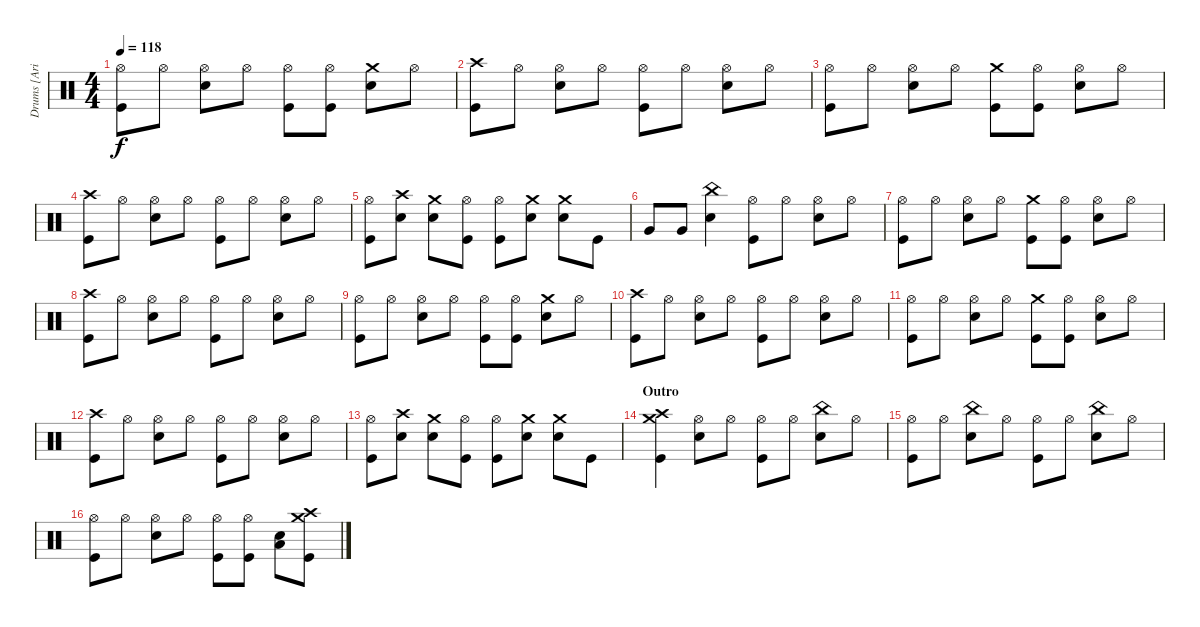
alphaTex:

\track ("Drums [Arin Ilejay]" "Drums [Ari") {instrument percussion}
\staff {score}
\articulation defaults
\ts (4 4)
\tempo 118
\clef neutral
\ks c
("Hi-Hat (open)" "Kick (hit)").8{dy f} "Hi-Hat (open)".8 ("Hi-Hat (open)" "Snare (hit) 2").8 "Hi-Hat (open)".8 ("Hi-Hat (open)" "Kick (hit)").8 ("Hi-Hat (open)" "Kick (hit)").8 ("Crash medium (hit)" "Snare (hit) 2").8 "Hi-Hat (open)".8 |
("Crash high (hit)" "Kick (hit)").8 "Hi-Hat (open)".8 ("Hi-Hat (open)" "Snare (hit) 2").8 "Hi-Hat (open)".8 ("Hi-Hat (open)" "Kick (hit)").8 "Hi-Hat (open)".8 ("Hi-Hat (open)" "Snare (hit) 2").8 "Hi-Hat (open)".8 |
("Hi-Hat (open)" "Kick (hit)").8 "Hi-Hat (open)".8 ("Hi-Hat (open)" "Snare (hit) 2").8 "Hi-Hat (open)".8 ("Crash medium (hit)" "Kick (hit)").8 ("Hi-Hat (open)" "Kick (hit)").8 ("Hi-Hat (open)" "Snare (hit) 2").8 "Hi-Hat (open)".8 |
("Crash high (hit)" "Kick (hit)").8 "Hi-Hat (open)".8 ("Hi-Hat (open)" "Snare (hit) 2").8 "Hi-Hat (open)".8 ("Hi-Hat (open)" "Kick (hit)").8 "Hi-Hat (open)".8 ("Hi-Hat (open)" "Snare (hit) 2").8 "Hi-Hat (open)".8 |
("Hi-Hat (open)" "Kick (hit)").8 ("Crash high (hit)" "Snare (hit) 2").8 ("Crash medium (hit)" "Snare (hit) 2").8 ("Hi-Hat (open)" "Kick (hit)").8 ("Hi-Hat (open)" "Kick (hit)").8 ("Crash medium (hit)" "Snare (hit) 2").8 ("Crash medium (hit)" "Snare (hit) 2").8 "Kick (hit)".8 |
"Very Low Tom (hit)".8 "Very Low Tom (hit)".8 ("China (hit)" "Snare (hit) 2").4 ("Hi-Hat (open)" "Kick (hit)").8 "Hi-Hat (open)".8 ("Hi-Hat (open)" "Snare (hit) 2").8 "Hi-Hat (open)".8 |
("Hi-Hat (open)" "Kick (hit)").8 "Hi-Hat (open)".8 ("Hi-Hat (open)" "Snare (hit) 2").8 "Hi-Hat (open)".8 ("Crash medium (hit)" "Kick (hit)").8 ("Hi-Hat (open)" "Kick (hit)").8 ("Hi-Hat (open)" "Snare (hit) 2").8 "Hi-Hat (open)".8 |
("Crash high (hit)" "Kick (hit)").8 "Hi-Hat (open)".8 ("Hi-Hat (open)" "Snare (hit) 2").8 "Hi-Hat (open)".8 ("Hi-Hat (open)" "Kick (hit)").8 "Hi-Hat (open)".8 ("Hi-Hat (open)" "Snare (hit) 2").8 "Hi-Hat (open)".8 |
("Hi-Hat (open)" "Kick (hit)").8 "Hi-Hat (open)".8 ("Hi-Hat (open)" "Snare (hit) 2").8 "Hi-Hat (open)".8 ("Hi-Hat (open)" "Kick (hit)").8 ("Hi-Hat (open)" "Kick (hit)").8 ("Crash medium (hit)" "Snare (hit) 2").8 "Hi-Hat (open)".8 |
("Crash high (hit)" "Kick (hit)").8 "Hi-Hat (open)".8 ("Hi-Hat (open)" "Snare (hit) 2").8 "Hi-Hat (open)".8 ("Hi-Hat (open)" "Kick (hit)").8 "Hi-Hat (open)".8 ("Hi-Hat (open)" "Snare (hit) 2").8 "Hi-Hat (open)".8 |
("Hi-Hat (open)" "Kick (hit)").8 "Hi-Hat (open)".8 ("Hi-Hat (open)" "Snare (hit) 2").8 "Hi-Hat (open)".8 ("Crash medium (hit)" "Kick (hit)").8 ("Hi-Hat (open)" "Kick (hit)").8 ("Hi-Hat (open)" "Snare (hit) 2").8 "Hi-Hat (open)".8 |
("Crash high (hit)" "Kick (hit)").8 "Hi-Hat (open)".8 ("Hi-Hat (open)" "Snare (hit) 2").8 "Hi-Hat (open)".8 ("Hi-Hat (open)" "Kick (hit)").8 "Hi-Hat (open)".8 ("Hi-Hat (open)" "Snare (hit) 2").8 "Hi-Hat (open)".8 |
("Hi-Hat (open)" "Kick (hit)").8 ("Crash high (hit)" "Snare (hit) 2").8 ("Crash medium (hit)" "Snare (hit) 2").8 ("Hi-Hat (open)" "Kick (hit)").8 ("Hi-Hat (open)" "Kick (hit)").8 ("Crash medium (hit)" "Snare (hit) 2").8 ("Crash medium (hit)" "Snare (hit) 2").8 "Kick (hit)".8 |
\section ("" "Outro")
("Crash high (hit)" "Crash medium (hit)" "Kick (hit)").4 ("Hi-Hat (open)" "Snare (hit) 2").8 "Hi-Hat (open)".8 ("Hi-Hat (open)" "Kick (hit)").8 "Hi-Hat (open)".8 ("China (hit)" "Snare (hit) 2").8 "Hi-Hat (open)".8 |
("Hi-Hat (open)" "Kick (hit)").8 "Hi-Hat (open)".8 ("China (hit)" "Snare (hit) 2").8 "Hi-Hat (open)".8 ("Hi-Hat (open)" "Kick (hit)").8 "Hi-Hat (open)".8 ("China (hit)" "Snare (hit) 2").8 "Hi-Hat (open)".8 |
("Hi-Hat (open)" "Kick (hit)").8 "Hi-Hat (open)".8 ("Hi-Hat (open)" "Snare (hit) 2").8 "Hi-Hat (open)".8 ("Hi-Hat (open)" "Kick (hit)").8 ("Hi-Hat (open)" "Kick (hit)").8 ("Low Floor Tom (hit)" "Snare (hit) 2").8 ("Crash high (hit)" "Crash medium (hit)" "Kick (hit)").8
